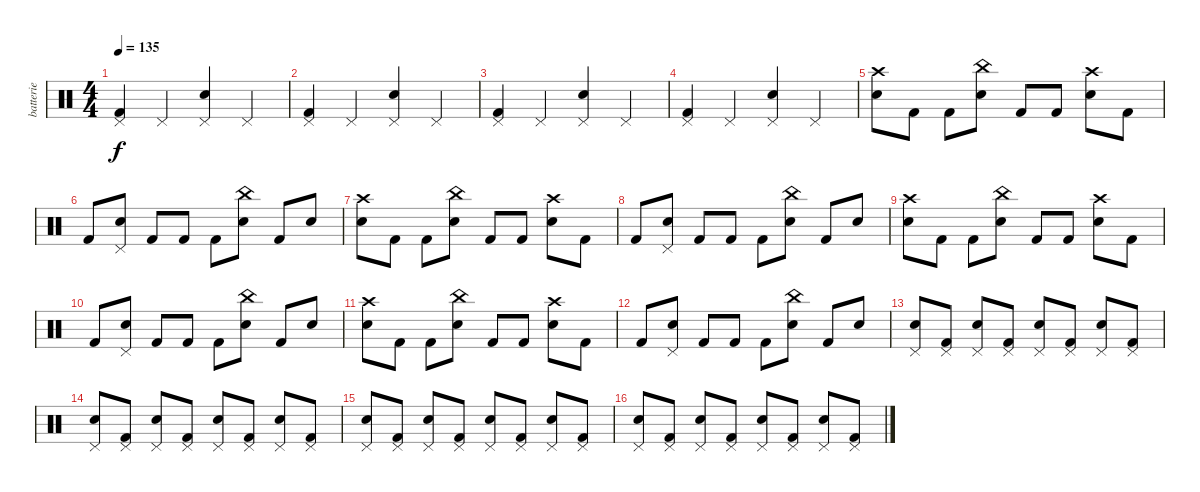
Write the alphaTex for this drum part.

\track ("batterie" "batterie") {instrument percussion}
\staff {score}
\articulation defaults
\ts (4 4)
\tempo 135
\clef neutral
\ks c
("Kick (hit) 2" "Pedal Hi-Hat (hit)").4{dy f} "Pedal Hi-Hat (hit)".4 ("Snare (hit) 2" "Pedal Hi-Hat (hit)").4 "Pedal Hi-Hat (hit)".4 |
("Kick (hit) 2" "Pedal Hi-Hat (hit)").4 "Pedal Hi-Hat (hit)".4 ("Snare (hit) 2" "Pedal Hi-Hat (hit)").4 "Pedal Hi-Hat (hit)".4 |
("Kick (hit) 2" "Pedal Hi-Hat (hit)").4 "Pedal Hi-Hat (hit)".4 ("Snare (hit) 2" "Pedal Hi-Hat (hit)").4 "Pedal Hi-Hat (hit)".4 |
("Kick (hit) 2" "Pedal Hi-Hat (hit)").4 "Pedal Hi-Hat (hit)".4 ("Snare (hit) 2" "Pedal Hi-Hat (hit)").4 "Pedal Hi-Hat (hit)".4 |
("Crash high (hit)" "Snare (hit) 2").8 "Kick (hit) 2".8 "Kick (hit) 2".8 ("China (hit)" "Snare (hit) 2").8 "Kick (hit) 2".8 "Kick (hit) 2".8 ("Crash high (hit)" "Snare (hit) 2").8 "Kick (hit) 2".8 |
"Kick (hit) 2".8 ("Snare (hit) 2" "Pedal Hi-Hat (hit)").8 "Kick (hit) 2".8 "Kick (hit) 2".8 "Kick (hit) 2".8 ("China (hit)" "Snare (hit) 2").8 "Kick (hit) 2".8 "Snare (hit) 2".8 |
("Crash high (hit)" "Snare (hit) 2").8 "Kick (hit) 2".8 "Kick (hit) 2".8 ("China (hit)" "Snare (hit) 2").8 "Kick (hit) 2".8 "Kick (hit) 2".8 ("Crash high (hit)" "Snare (hit) 2").8 "Kick (hit) 2".8 |
"Kick (hit) 2".8 ("Snare (hit) 2" "Pedal Hi-Hat (hit)").8 "Kick (hit) 2".8 "Kick (hit) 2".8 "Kick (hit) 2".8 ("China (hit)" "Snare (hit) 2").8 "Kick (hit) 2".8 "Snare (hit) 2".8 |
("Crash high (hit)" "Snare (hit) 2").8 "Kick (hit) 2".8 "Kick (hit) 2".8 ("China (hit)" "Snare (hit) 2").8 "Kick (hit) 2".8 "Kick (hit) 2".8 ("Crash high (hit)" "Snare (hit) 2").8 "Kick (hit) 2".8 |
"Kick (hit) 2".8 ("Snare (hit) 2" "Pedal Hi-Hat (hit)").8 "Kick (hit) 2".8 "Kick (hit) 2".8 "Kick (hit) 2".8 ("China (hit)" "Snare (hit) 2").8 "Kick (hit) 2".8 "Snare (hit) 2".8 |
("Crash high (hit)" "Snare (hit) 2").8 "Kick (hit) 2".8 "Kick (hit) 2".8 ("China (hit)" "Snare (hit) 2").8 "Kick (hit) 2".8 "Kick (hit) 2".8 ("Crash high (hit)" "Snare (hit) 2").8 "Kick (hit) 2".8 |
"Kick (hit) 2".8 ("Snare (hit) 2" "Pedal Hi-Hat (hit)").8 "Kick (hit) 2".8 "Kick (hit) 2".8 "Kick (hit) 2".8 ("China (hit)" "Snare (hit) 2").8 "Kick (hit) 2".8 "Snare (hit) 2".8 |
("Snare (hit) 2" "Pedal Hi-Hat (hit)").8 ("Kick (hit) 2" "Pedal Hi-Hat (hit)").8 ("Snare (hit) 2" "Pedal Hi-Hat (hit)").8 ("Kick (hit) 2" "Pedal Hi-Hat (hit)").8 ("Snare (hit) 2" "Pedal Hi-Hat (hit)").8 ("Kick (hit) 2" "Pedal Hi-Hat (hit)").8 ("Snare (hit) 2" "Pedal Hi-Hat (hit)").8 ("Kick (hit) 2" "Pedal Hi-Hat (hit)").8 |
("Snare (hit) 2" "Pedal Hi-Hat (hit)").8 ("Kick (hit) 2" "Pedal Hi-Hat (hit)").8 ("Snare (hit) 2" "Pedal Hi-Hat (hit)").8 ("Kick (hit) 2" "Pedal Hi-Hat (hit)").8 ("Snare (hit) 2" "Pedal Hi-Hat (hit)").8 ("Kick (hit) 2" "Pedal Hi-Hat (hit)").8 ("Snare (hit) 2" "Pedal Hi-Hat (hit)").8 ("Kick (hit) 2" "Pedal Hi-Hat (hit)").8 |
("Snare (hit) 2" "Pedal Hi-Hat (hit)").8 ("Kick (hit) 2" "Pedal Hi-Hat (hit)").8 ("Snare (hit) 2" "Pedal Hi-Hat (hit)").8 ("Kick (hit) 2" "Pedal Hi-Hat (hit)").8 ("Snare (hit) 2" "Pedal Hi-Hat (hit)").8 ("Kick (hit) 2" "Pedal Hi-Hat (hit)").8 ("Snare (hit) 2" "Pedal Hi-Hat (hit)").8 ("Kick (hit) 2" "Pedal Hi-Hat (hit)").8 |
("Snare (hit) 2" "Pedal Hi-Hat (hit)").8 ("Kick (hit) 2" "Pedal Hi-Hat (hit)").8 ("Snare (hit) 2" "Pedal Hi-Hat (hit)").8 ("Kick (hit) 2" "Pedal Hi-Hat (hit)").8 ("Snare (hit) 2" "Pedal Hi-Hat (hit)").8 ("Kick (hit) 2" "Pedal Hi-Hat (hit)").8 ("Snare (hit) 2" "Pedal Hi-Hat (hit)").8 ("Kick (hit) 2" "Pedal Hi-Hat (hit)").8
